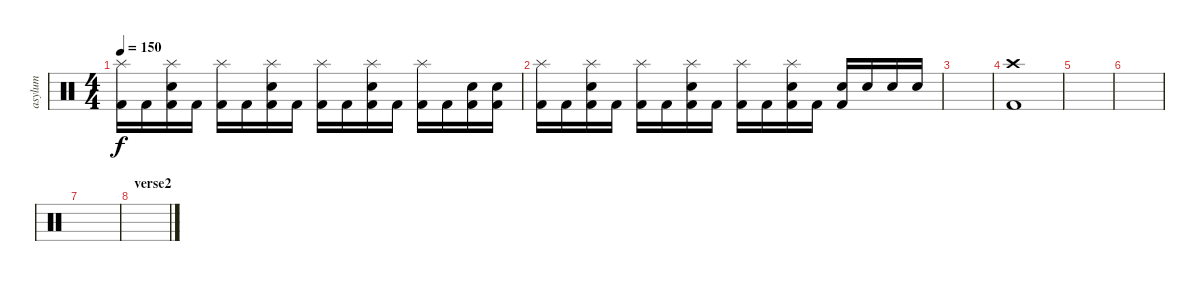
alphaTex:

\track ("asylum" "asylum") {instrument percussion}
\staff {score}
\articulation defaults
\ts (4 4)
\tempo 150
\clef neutral
\ks c
("Splash (hit)" "Kick (hit) 2").16{dy f} "Kick (hit) 2".16 ("Splash (hit)" "Electric Snare (hit)" "Kick (hit) 2").16 "Kick (hit) 2".16 ("Splash (hit)" "Kick (hit) 2").16 "Kick (hit) 2".16 ("Splash (hit)" "Electric Snare (hit)" "Kick (hit) 2").16 "Kick (hit) 2".16 ("Splash (hit)" "Kick (hit) 2").16 "Kick (hit) 2".16 ("Splash (hit)" "Electric Snare (hit)" "Kick (hit) 2").16 "Kick (hit) 2".16 ("Splash (hit)" "Kick (hit) 2").16 "Kick (hit) 2".16 ("Electric Snare (hit)" "Kick (hit) 2").16 ("Electric Snare (hit)" "Kick (hit) 2").16 |
("Splash (hit)" "Kick (hit) 2").16 "Kick (hit) 2".16 ("Splash (hit)" "Electric Snare (hit)" "Kick (hit) 2").16 "Kick (hit) 2".16 ("Splash (hit)" "Kick (hit) 2").16 "Kick (hit) 2".16 ("Splash (hit)" "Electric Snare (hit)" "Kick (hit) 2").16 "Kick (hit) 2".16 ("Splash (hit)" "Kick (hit) 2").16 "Kick (hit) 2".16 ("Splash (hit)" "Electric Snare (hit)" "Kick (hit) 2").16 "Kick (hit) 2".16 ("Electric Snare (hit)" "Kick (hit) 2").16 "Electric Snare (hit)".16 "Electric Snare (hit)".16 "Electric Snare (hit)".16 |
|
("Crash high (hit)" "Kick (hit) 2").1 |
|
|
|
\section ("" "verse2")
